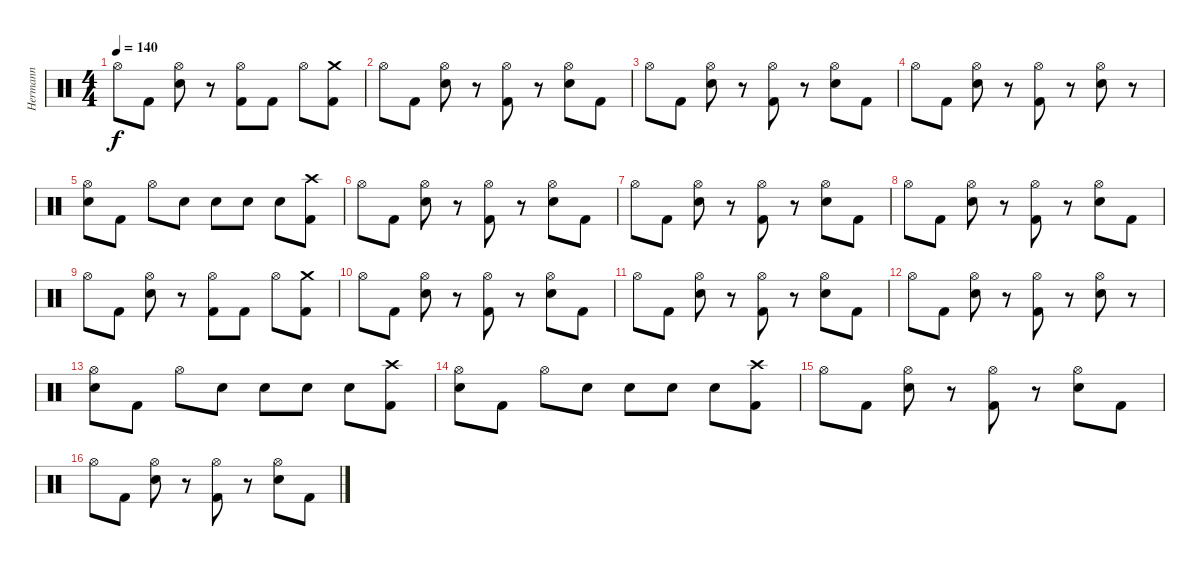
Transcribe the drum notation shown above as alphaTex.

\track ("Hermann" "Hermann") {instrument percussion}
\staff {score}
\articulation defaults
\ts (4 4)
\tempo 140
\clef neutral
\ks c "Hi-Hat (open)".8{dy f} "Kick (hit) 2".8
("Hi-Hat (open)" "Electric Snare (hit)").8 r.8 ("Hi-Hat (open)" "Kick (hit) 2").8 "Kick (hit) 2".8 "Hi-Hat (open)".8 ("Crash medium (hit)" "Kick (hit) 2").8 |
"Hi-Hat (open)".8 "Kick (hit) 2".8 ("Hi-Hat (open)" "Electric Snare (hit)").8 r.8 ("Hi-Hat (open)" "Kick (hit) 2").8 r.8 ("Hi-Hat (open)" "Electric Snare (hit)").8 "Kick (hit) 2".8 |
"Hi-Hat (open)".8 "Kick (hit) 2".8 ("Hi-Hat (open)" "Electric Snare (hit)").8 r.8 ("Hi-Hat (open)" "Kick (hit) 2").8 r.8 ("Hi-Hat (open)" "Electric Snare (hit)").8 "Kick (hit) 2".8 |
"Hi-Hat (open)".8 "Kick (hit) 2".8 ("Hi-Hat (open)" "Electric Snare (hit)").8 r.8 ("Hi-Hat (open)" "Kick (hit) 2").8 r.8 ("Hi-Hat (open)" "Electric Snare (hit)").8 r.8 |
("Hi-Hat (open)" "Electric Snare (hit)").8 "Kick (hit) 2".8 "Hi-Hat (open)".8 "Electric Snare (hit)".8 "Electric Snare (hit)".8 "Electric Snare (hit)".8 "Electric Snare (hit)".8 ("Crash high (hit)" "Kick (hit) 2").8 |
"Hi-Hat (open)".8 "Kick (hit) 2".8 ("Hi-Hat (open)" "Electric Snare (hit)").8 r.8 ("Hi-Hat (open)" "Kick (hit) 2").8 r.8 ("Hi-Hat (open)" "Electric Snare (hit)").8 "Kick (hit) 2".8 |
"Hi-Hat (open)".8 "Kick (hit) 2".8 ("Hi-Hat (open)" "Electric Snare (hit)").8 r.8 ("Hi-Hat (open)" "Kick (hit) 2").8 r.8 ("Hi-Hat (open)" "Electric Snare (hit)").8 "Kick (hit) 2".8 |
"Hi-Hat (open)".8 "Kick (hit) 2".8 ("Hi-Hat (open)" "Electric Snare (hit)").8 r.8 ("Hi-Hat (open)" "Kick (hit) 2").8 r.8 ("Hi-Hat (open)" "Electric Snare (hit)").8 "Kick (hit) 2".8 |
"Hi-Hat (open)".8 "Kick (hit) 2".8 ("Hi-Hat (open)" "Electric Snare (hit)").8 r.8 ("Hi-Hat (open)" "Kick (hit) 2").8 "Kick (hit) 2".8 "Hi-Hat (open)".8 ("Crash medium (hit)" "Kick (hit) 2").8 |
"Hi-Hat (open)".8 "Kick (hit) 2".8 ("Hi-Hat (open)" "Electric Snare (hit)").8 r.8 ("Hi-Hat (open)" "Kick (hit) 2").8 r.8 ("Hi-Hat (open)" "Electric Snare (hit)").8 "Kick (hit) 2".8 |
"Hi-Hat (open)".8 "Kick (hit) 2".8 ("Hi-Hat (open)" "Electric Snare (hit)").8 r.8 ("Hi-Hat (open)" "Kick (hit) 2").8 r.8 ("Hi-Hat (open)" "Electric Snare (hit)").8 "Kick (hit) 2".8 |
"Hi-Hat (open)".8 "Kick (hit) 2".8 ("Hi-Hat (open)" "Electric Snare (hit)").8 r.8 ("Hi-Hat (open)" "Kick (hit) 2").8 r.8 ("Hi-Hat (open)" "Electric Snare (hit)").8 r.8 |
("Hi-Hat (open)" "Electric Snare (hit)").8 "Kick (hit) 2".8 "Hi-Hat (open)".8 "Electric Snare (hit)".8 "Electric Snare (hit)".8 "Electric Snare (hit)".8 "Electric Snare (hit)".8 ("Crash high (hit)" "Kick (hit) 2").8 |
("Hi-Hat (open)" "Electric Snare (hit)").8 "Kick (hit) 2".8 "Hi-Hat (open)".8 "Electric Snare (hit)".8 "Electric Snare (hit)".8 "Electric Snare (hit)".8 "Electric Snare (hit)".8 ("Crash high (hit)" "Kick (hit) 2").8 |
"Hi-Hat (open)".8 "Kick (hit) 2".8 ("Hi-Hat (open)" "Electric Snare (hit)").8 r.8 ("Hi-Hat (open)" "Kick (hit) 2").8 r.8 ("Hi-Hat (open)" "Electric Snare (hit)").8 "Kick (hit) 2".8 |
"Hi-Hat (open)".8 "Kick (hit) 2".8 ("Hi-Hat (open)" "Electric Snare (hit)").8 r.8 ("Hi-Hat (open)" "Kick (hit) 2").8 r.8 ("Hi-Hat (open)" "Electric Snare (hit)").8 "Kick (hit) 2".8
